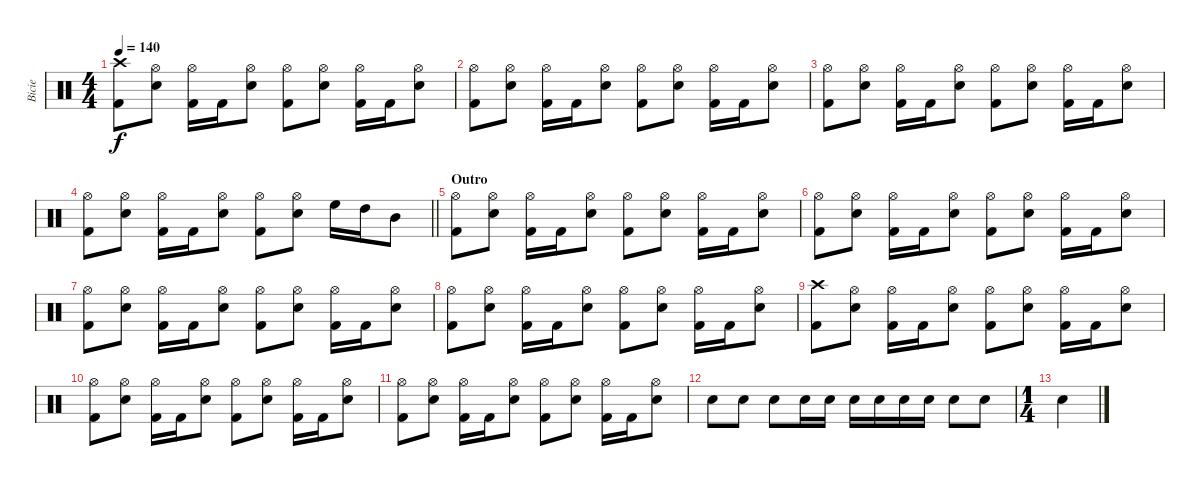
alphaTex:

\track ("Bicie" "Bicie") {instrument percussion}
\staff {score}
\articulation defaults
\ts (4 4)
\tempo 140
\clef neutral
\ks c
("Crash high (hit)" "Kick (hit) 2").8{dy f} ("Hi-Hat (open)" "Snare (hit) 2").8 ("Hi-Hat (open)" "Kick (hit) 2").16 "Kick (hit) 2".16 ("Hi-Hat (open)" "Snare (hit) 2").8 ("Hi-Hat (open)" "Kick (hit) 2").8 ("Hi-Hat (open)" "Snare (hit) 2").8 ("Hi-Hat (open)" "Kick (hit) 2").16 "Kick (hit) 2".16 ("Hi-Hat (open)" "Snare (hit) 2").8 |
("Hi-Hat (open)" "Kick (hit) 2").8 ("Hi-Hat (open)" "Snare (hit) 2").8 ("Hi-Hat (open)" "Kick (hit) 2").16 "Kick (hit) 2".16 ("Hi-Hat (open)" "Snare (hit) 2").8 ("Hi-Hat (open)" "Kick (hit) 2").8 ("Hi-Hat (open)" "Snare (hit) 2").8 ("Hi-Hat (open)" "Kick (hit) 2").16 "Kick (hit) 2".16 ("Hi-Hat (open)" "Snare (hit) 2").8 |
("Hi-Hat (open)" "Kick (hit) 2").8 ("Hi-Hat (open)" "Snare (hit) 2").8 ("Hi-Hat (open)" "Kick (hit) 2").16 "Kick (hit) 2".16 ("Hi-Hat (open)" "Snare (hit) 2").8 ("Hi-Hat (open)" "Kick (hit) 2").8 ("Hi-Hat (open)" "Snare (hit) 2").8 ("Hi-Hat (open)" "Kick (hit) 2").16 "Kick (hit) 2".16 ("Hi-Hat (open)" "Snare (hit) 2").8 |
\barLineRight lightlight
("Hi-Hat (open)" "Kick (hit) 2").8 ("Hi-Hat (open)" "Snare (hit) 2").8 ("Hi-Hat (open)" "Kick (hit) 2").16 "Kick (hit) 2".16 ("Hi-Hat (open)" "Snare (hit) 2").8 ("Hi-Hat (open)" "Kick (hit) 2").8 ("Hi-Hat (open)" "Snare (hit) 2").8 "High Floor Tom (hit)".16 "High Tom (hit)".16 "Mid Tom (hit)".8 |
\section ("" "Outro")
("Hi-Hat (open)" "Kick (hit) 2").8 ("Hi-Hat (open)" "Snare (hit) 2").8 ("Hi-Hat (open)" "Kick (hit) 2").16 "Kick (hit) 2".16 ("Hi-Hat (open)" "Snare (hit) 2").8 ("Hi-Hat (open)" "Kick (hit) 2").8 ("Hi-Hat (open)" "Snare (hit) 2").8 ("Hi-Hat (open)" "Kick (hit) 2").16 "Kick (hit) 2".16 ("Hi-Hat (open)" "Snare (hit) 2").8 |
("Hi-Hat (open)" "Kick (hit) 2").8 ("Hi-Hat (open)" "Snare (hit) 2").8 ("Hi-Hat (open)" "Kick (hit) 2").16 "Kick (hit) 2".16 ("Hi-Hat (open)" "Snare (hit) 2").8 ("Hi-Hat (open)" "Kick (hit) 2").8 ("Hi-Hat (open)" "Snare (hit) 2").8 ("Hi-Hat (open)" "Kick (hit) 2").16 "Kick (hit) 2".16 ("Hi-Hat (open)" "Snare (hit) 2").8 |
("Hi-Hat (open)" "Kick (hit) 2").8 ("Hi-Hat (open)" "Snare (hit) 2").8 ("Hi-Hat (open)" "Kick (hit) 2").16 "Kick (hit) 2".16 ("Hi-Hat (open)" "Snare (hit) 2").8 ("Hi-Hat (open)" "Kick (hit) 2").8 ("Hi-Hat (open)" "Snare (hit) 2").8 ("Hi-Hat (open)" "Kick (hit) 2").16 "Kick (hit) 2".16 ("Hi-Hat (open)" "Snare (hit) 2").8 |
("Hi-Hat (open)" "Kick (hit) 2").8 ("Hi-Hat (open)" "Snare (hit) 2").8 ("Hi-Hat (open)" "Kick (hit) 2").16 "Kick (hit) 2".16 ("Hi-Hat (open)" "Snare (hit) 2").8 ("Hi-Hat (open)" "Kick (hit) 2").8 ("Hi-Hat (open)" "Snare (hit) 2").8 ("Hi-Hat (open)" "Kick (hit) 2").16 "Kick (hit) 2".16 ("Hi-Hat (open)" "Snare (hit) 2").8 |
("Crash high (hit)" "Kick (hit) 2").8 ("Hi-Hat (open)" "Snare (hit) 2").8 ("Hi-Hat (open)" "Kick (hit) 2").16 "Kick (hit) 2".16 ("Hi-Hat (open)" "Snare (hit) 2").8 ("Hi-Hat (open)" "Kick (hit) 2").8 ("Hi-Hat (open)" "Snare (hit) 2").8 ("Hi-Hat (open)" "Kick (hit) 2").16 "Kick (hit) 2".16 ("Hi-Hat (open)" "Snare (hit) 2").8 |
("Hi-Hat (open)" "Kick (hit) 2").8 ("Hi-Hat (open)" "Snare (hit) 2").8 ("Hi-Hat (open)" "Kick (hit) 2").16 "Kick (hit) 2".16 ("Hi-Hat (open)" "Snare (hit) 2").8 ("Hi-Hat (open)" "Kick (hit) 2").8 ("Hi-Hat (open)" "Snare (hit) 2").8 ("Hi-Hat (open)" "Kick (hit) 2").16 "Kick (hit) 2".16 ("Hi-Hat (open)" "Snare (hit) 2").8 |
("Hi-Hat (open)" "Kick (hit) 2").8 ("Hi-Hat (open)" "Snare (hit) 2").8 ("Hi-Hat (open)" "Kick (hit) 2").16 "Kick (hit) 2".16 ("Hi-Hat (open)" "Snare (hit) 2").8 ("Hi-Hat (open)" "Kick (hit) 2").8 ("Hi-Hat (open)" "Snare (hit) 2").8 ("Hi-Hat (open)" "Kick (hit) 2").16 "Kick (hit) 2".16 ("Hi-Hat (open)" "Snare (hit) 2").8 |
"Snare (hit) 2".8 "Snare (hit) 2".8 "Snare (hit) 2".8 "Snare (hit) 2".16 "Snare (hit) 2".16 "Snare (hit) 2".16 "Snare (hit) 2".16 "Snare (hit) 2".16 "Snare (hit) 2".16 "Snare (hit) 2".8 "Snare (hit) 2".8 |
\ts (1 4)
"Snare (hit) 2".4
